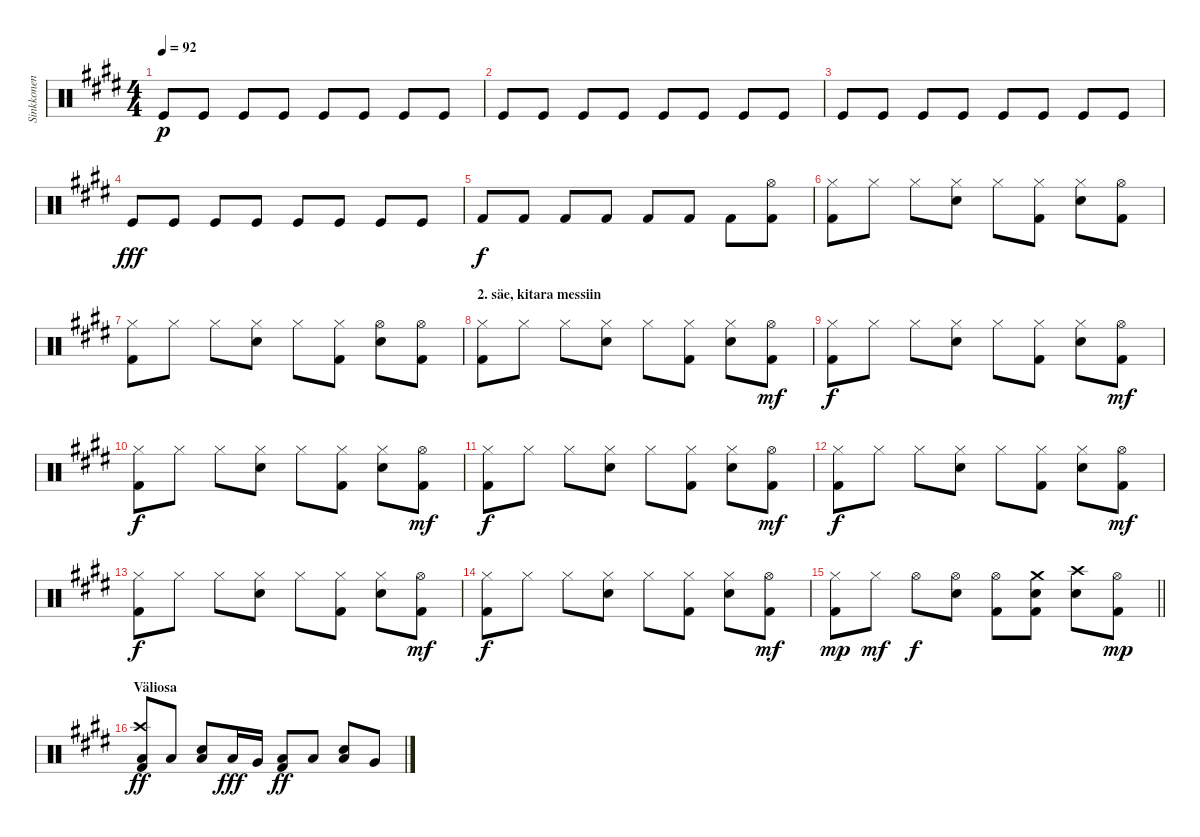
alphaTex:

\track ("Sinkkonen" "Sinkkonen") {instrument percussion}
\staff {score}
\articulation defaults
\ts (4 4)
\tempo 92
\clef neutral
\ks c#minor "Kick (hit)".8{dy p} "Kick (hit)".8 "Kick (hit)".8 "Kick (hit)".8 "Kick (hit)".8 "Kick (hit)".8 "Kick (hit)".8 "Kick (hit)".8
|
"Kick (hit)".8 "Kick (hit)".8 "Kick (hit)".8 "Kick (hit)".8 "Kick (hit)".8 "Kick (hit)".8 "Kick (hit)".8 "Kick (hit)".8 |
"Kick (hit)".8 "Kick (hit)".8 "Kick (hit)".8 "Kick (hit)".8 "Kick (hit)".8 "Kick (hit)".8 "Kick (hit)".8 "Kick (hit)".8 |
"Kick (hit)".8{dy fff volume 4} "Kick (hit)".8 "Kick (hit)".8 "Kick (hit)".8 "Kick (hit)".8 "Kick (hit)".8 "Kick (hit)".8 "Kick (hit)".8 |
"Kick (hit) 2".8{dy f volume 10} "Kick (hit) 2".8 "Kick (hit) 2".8 "Kick (hit) 2".8 "Kick (hit) 2".8 "Kick (hit) 2".8 "Kick (hit) 2".8 ("Kick (hit) 2" "Hi-Hat (open)").8 |
("Kick (hit) 2" "Hi-Hat (closed)").8 "Hi-Hat (closed)".8 "Hi-Hat (closed)".8 ("Hi-Hat (closed)" "Snare (hit) 2").8 "Hi-Hat (closed)".8 ("Kick (hit) 2" "Hi-Hat (closed)").8 ("Hi-Hat (closed)" "Snare (hit) 2").8 ("Kick (hit) 2" "Hi-Hat (open)").8 |
("Kick (hit) 2" "Hi-Hat (closed)").8{volume 13} "Hi-Hat (closed)".8 "Hi-Hat (closed)".8 ("Hi-Hat (closed)" "Snare (hit) 2").8 "Hi-Hat (closed)".8 ("Kick (hit) 2" "Hi-Hat (closed)").8 ("Hi-Hat (open)" "Snare (hit) 2").8 ("Kick (hit) 2" "Hi-Hat (open)").8 |
\section ("" "2. säe, kitara messiin")
("Kick (hit) 2" "Hi-Hat (closed)").8 "Hi-Hat (closed)".8 "Hi-Hat (closed)".8 ("Hi-Hat (closed)" "Snare (hit) 2").8 "Hi-Hat (closed)".8 ("Kick (hit) 2" "Hi-Hat (closed)").8 ("Hi-Hat (closed)" "Snare (hit) 2").8 ("Kick (hit) 2" "Hi-Hat (open)").8{dy mf} |
("Kick (hit) 2" "Hi-Hat (closed)").8{dy f} "Hi-Hat (closed)".8 "Hi-Hat (closed)".8 ("Hi-Hat (closed)" "Snare (hit) 2").8 "Hi-Hat (closed)".8 ("Kick (hit) 2" "Hi-Hat (closed)").8 ("Hi-Hat (closed)" "Snare (hit) 2").8 ("Kick (hit) 2" "Hi-Hat (open)").8{dy mf} |
("Kick (hit) 2" "Hi-Hat (closed)").8{dy f} "Hi-Hat (closed)".8 "Hi-Hat (closed)".8 ("Hi-Hat (closed)" "Snare (hit) 2").8 "Hi-Hat (closed)".8 ("Kick (hit) 2" "Hi-Hat (closed)").8 ("Hi-Hat (closed)" "Snare (hit) 2").8 ("Kick (hit) 2" "Hi-Hat (open)").8{dy mf} |
("Kick (hit) 2" "Hi-Hat (closed)").8{dy f} "Hi-Hat (closed)".8 "Hi-Hat (closed)".8 ("Hi-Hat (closed)" "Snare (hit) 2").8 "Hi-Hat (closed)".8 ("Kick (hit) 2" "Hi-Hat (closed)").8 ("Hi-Hat (closed)" "Snare (hit) 2").8 ("Kick (hit) 2" "Hi-Hat (open)").8{dy mf} |
("Kick (hit) 2" "Hi-Hat (closed)").8{dy f} "Hi-Hat (closed)".8 "Hi-Hat (closed)".8 ("Hi-Hat (closed)" "Snare (hit) 2").8 "Hi-Hat (closed)".8 ("Kick (hit) 2" "Hi-Hat (closed)").8 ("Hi-Hat (closed)" "Snare (hit) 2").8 ("Kick (hit) 2" "Hi-Hat (open)").8{dy mf} |
("Kick (hit) 2" "Hi-Hat (closed)").8{dy f} "Hi-Hat (closed)".8 "Hi-Hat (closed)".8 ("Hi-Hat (closed)" "Snare (hit) 2").8 "Hi-Hat (closed)".8 ("Kick (hit) 2" "Hi-Hat (closed)").8 ("Hi-Hat (closed)" "Snare (hit) 2").8 ("Kick (hit) 2" "Hi-Hat (open)").8{dy mf} |
("Kick (hit) 2" "Hi-Hat (closed)").8{dy f} "Hi-Hat (closed)".8 "Hi-Hat (closed)".8 ("Hi-Hat (closed)" "Snare (hit) 2").8 "Hi-Hat (closed)".8 ("Kick (hit) 2" "Hi-Hat (closed)").8 ("Hi-Hat (closed)" "Snare (hit) 2").8 ("Kick (hit) 2" "Hi-Hat (open)").8{dy mf} |
\barLineRight lightlight
("Kick (hit) 2" "Hi-Hat (closed)").8{dy mp} "Hi-Hat (closed)".8{dy mf} "Hi-Hat (open)".8{dy f} ("Hi-Hat (open)" "Snare (hit) 2").8 ("Kick (hit) 2" "Hi-Hat (open)").8 ("Kick (hit) 2" "Crash medium (hit)" "Snare (hit) 2").8 ("Crash high (hit)" "Snare (hit) 2").8 ("Kick (hit) 2" "Hi-Hat (open)").8{dy mp} |
\section ("" "Väliosa")
("Kick (hit) 2" "Crash high (hit)" "Low Floor Tom (hit)").8{dy ff} "Low Floor Tom (hit)".8 ("Low Floor Tom (hit)" "Snare (hit) 2").8 "Low Tom (hit)".16{dy fff} "Very Low Tom (hit)".16 ("Kick (hit) 2" "Low Floor Tom (hit)").8{dy ff} "Low Floor Tom (hit)".8 ("Low Floor Tom (hit)" "Snare (hit) 2").8 "Very Low Tom (hit)".8
